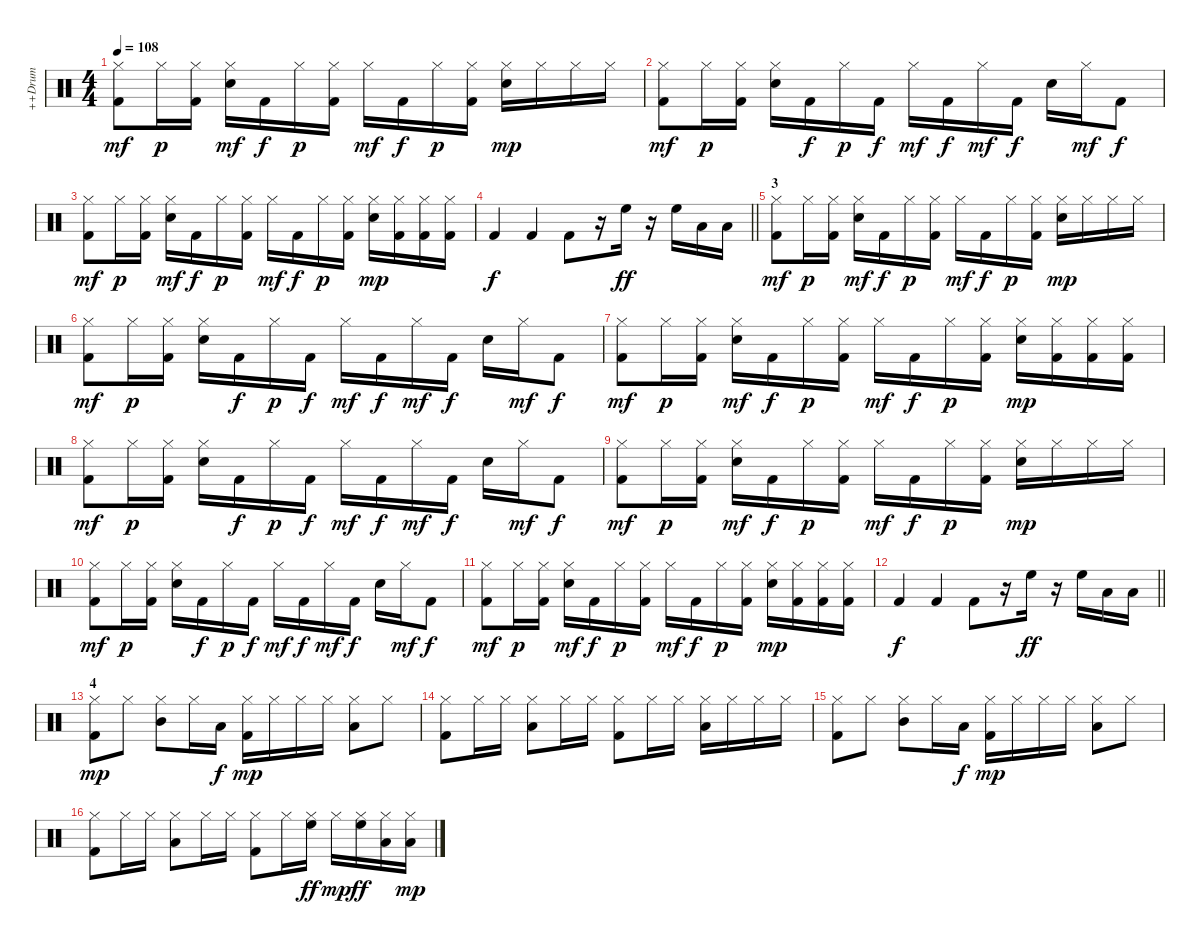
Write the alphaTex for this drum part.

\track ("++Drum" "++Drum") {instrument percussion}
\staff {score}
\articulation defaults
\ts (4 4)
\tempo 108
\clef neutral
\ks c
("Hi-Hat (closed)" "Kick (hit) 2").8{dy mf} "Hi-Hat (closed)".16{dy p} ("Hi-Hat (closed)" "Kick (hit) 2").16 ("Hi-Hat (closed)" "Electric Snare (hit)").16{dy mf} "Kick (hit) 2".16{dy f} "Hi-Hat (closed)".16{dy p} ("Hi-Hat (closed)" "Kick (hit) 2").16 "Hi-Hat (closed)".16{dy mf} "Kick (hit) 2".16{dy f} "Hi-Hat (closed)".16{dy p} ("Hi-Hat (closed)" "Kick (hit) 2").16 ("Hi-Hat (closed)" "Electric Snare (hit)").16{dy mp} "Hi-Hat (closed)".16 "Hi-Hat (closed)".16 "Hi-Hat (closed)".16 |
("Hi-Hat (closed)" "Kick (hit) 2").8{dy mf} "Hi-Hat (closed)".16{dy p} ("Hi-Hat (closed)" "Kick (hit) 2").16 ("Hi-Hat (closed)" "Electric Snare (hit)").16 "Kick (hit) 2".16{dy f} "Hi-Hat (closed)".16{dy p} "Kick (hit) 2".16{dy f} "Hi-Hat (closed)".16{dy mf} "Kick (hit) 2".16{dy f} "Hi-Hat (closed)".16{dy mf} "Kick (hit) 2".16{dy f} "Electric Snare (hit)".16 "Hi-Hat (closed)".16{dy mf} "Kick (hit) 2".8{dy f} |
("Hi-Hat (closed)" "Kick (hit) 2").8{dy mf} "Hi-Hat (closed)".16{dy p} ("Hi-Hat (closed)" "Kick (hit) 2").16 ("Hi-Hat (closed)" "Electric Snare (hit)").16{dy mf} "Kick (hit) 2".16{dy f} "Hi-Hat (closed)".16{dy p} ("Hi-Hat (closed)" "Kick (hit) 2").16 "Hi-Hat (closed)".16{dy mf} "Kick (hit) 2".16{dy f} "Hi-Hat (closed)".16{dy p} ("Hi-Hat (closed)" "Kick (hit) 2").16 ("Hi-Hat (closed)" "Electric Snare (hit)").16{dy mp} ("Hi-Hat (closed)" "Kick (hit) 2").16 ("Hi-Hat (closed)" "Kick (hit) 2").16 ("Hi-Hat (closed)" "Kick (hit) 2").16 |
\barLineRight lightlight "Kick (hit) 2".4{dy f} "Kick (hit) 2".4 "Kick (hit) 2".8
r.16 "High Floor Tom (hit)".16{dy ff} r.16 "High Floor Tom (hit)".16 "Low Tom (hit)".16 "Low Tom (hit)".16 |
\section ("" "3")
("Hi-Hat (closed)" "Kick (hit) 2").8{dy mf} "Hi-Hat (closed)".16{dy p} ("Hi-Hat (closed)" "Kick (hit) 2").16 ("Hi-Hat (closed)" "Electric Snare (hit)").16{dy mf} "Kick (hit) 2".16{dy f} "Hi-Hat (closed)".16{dy p} ("Hi-Hat (closed)" "Kick (hit) 2").16 "Hi-Hat (closed)".16{dy mf} "Kick (hit) 2".16{dy f} "Hi-Hat (closed)".16{dy p} ("Hi-Hat (closed)" "Kick (hit) 2").16 ("Hi-Hat (closed)" "Electric Snare (hit)").16{dy mp} "Hi-Hat (closed)".16 "Hi-Hat (closed)".16 "Hi-Hat (closed)".16 |
("Hi-Hat (closed)" "Kick (hit) 2").8{dy mf} "Hi-Hat (closed)".16{dy p} ("Hi-Hat (closed)" "Kick (hit) 2").16 ("Hi-Hat (closed)" "Electric Snare (hit)").16 "Kick (hit) 2".16{dy f} "Hi-Hat (closed)".16{dy p} "Kick (hit) 2".16{dy f} "Hi-Hat (closed)".16{dy mf} "Kick (hit) 2".16{dy f} "Hi-Hat (closed)".16{dy mf} "Kick (hit) 2".16{dy f} "Electric Snare (hit)".16 "Hi-Hat (closed)".16{dy mf} "Kick (hit) 2".8{dy f} |
("Hi-Hat (closed)" "Kick (hit) 2").8{dy mf} "Hi-Hat (closed)".16{dy p} ("Hi-Hat (closed)" "Kick (hit) 2").16 ("Hi-Hat (closed)" "Electric Snare (hit)").16{dy mf} "Kick (hit) 2".16{dy f} "Hi-Hat (closed)".16{dy p} ("Hi-Hat (closed)" "Kick (hit) 2").16 "Hi-Hat (closed)".16{dy mf} "Kick (hit) 2".16{dy f} "Hi-Hat (closed)".16{dy p} ("Hi-Hat (closed)" "Kick (hit) 2").16 ("Hi-Hat (closed)" "Electric Snare (hit)").16{dy mp} ("Hi-Hat (closed)" "Kick (hit) 2").16 ("Hi-Hat (closed)" "Kick (hit) 2").16 ("Hi-Hat (closed)" "Kick (hit) 2").16 |
("Hi-Hat (closed)" "Kick (hit) 2").8{dy mf} "Hi-Hat (closed)".16{dy p} ("Hi-Hat (closed)" "Kick (hit) 2").16 ("Hi-Hat (closed)" "Electric Snare (hit)").16 "Kick (hit) 2".16{dy f} "Hi-Hat (closed)".16{dy p} "Kick (hit) 2".16{dy f} "Hi-Hat (closed)".16{dy mf} "Kick (hit) 2".16{dy f} "Hi-Hat (closed)".16{dy mf} "Kick (hit) 2".16{dy f} "Electric Snare (hit)".16 "Hi-Hat (closed)".16{dy mf} "Kick (hit) 2".8{dy f} |
("Hi-Hat (closed)" "Kick (hit) 2").8{dy mf} "Hi-Hat (closed)".16{dy p} ("Hi-Hat (closed)" "Kick (hit) 2").16 ("Hi-Hat (closed)" "Electric Snare (hit)").16{dy mf} "Kick (hit) 2".16{dy f} "Hi-Hat (closed)".16{dy p} ("Hi-Hat (closed)" "Kick (hit) 2").16 "Hi-Hat (closed)".16{dy mf} "Kick (hit) 2".16{dy f} "Hi-Hat (closed)".16{dy p} ("Hi-Hat (closed)" "Kick (hit) 2").16 ("Hi-Hat (closed)" "Electric Snare (hit)").16{dy mp} "Hi-Hat (closed)".16 "Hi-Hat (closed)".16 "Hi-Hat (closed)".16 |
("Hi-Hat (closed)" "Kick (hit) 2").8{dy mf} "Hi-Hat (closed)".16{dy p} ("Hi-Hat (closed)" "Kick (hit) 2").16 ("Hi-Hat (closed)" "Electric Snare (hit)").16 "Kick (hit) 2".16{dy f} "Hi-Hat (closed)".16{dy p} "Kick (hit) 2".16{dy f} "Hi-Hat (closed)".16{dy mf} "Kick (hit) 2".16{dy f} "Hi-Hat (closed)".16{dy mf} "Kick (hit) 2".16{dy f} "Electric Snare (hit)".16 "Hi-Hat (closed)".16{dy mf} "Kick (hit) 2".8{dy f} |
("Hi-Hat (closed)" "Kick (hit) 2").8{dy mf} "Hi-Hat (closed)".16{dy p} ("Hi-Hat (closed)" "Kick (hit) 2").16 ("Hi-Hat (closed)" "Electric Snare (hit)").16{dy mf} "Kick (hit) 2".16{dy f} "Hi-Hat (closed)".16{dy p} ("Hi-Hat (closed)" "Kick (hit) 2").16 "Hi-Hat (closed)".16{dy mf} "Kick (hit) 2".16{dy f} "Hi-Hat (closed)".16{dy p} ("Hi-Hat (closed)" "Kick (hit) 2").16 ("Hi-Hat (closed)" "Electric Snare (hit)").16{dy mp} ("Hi-Hat (closed)" "Kick (hit) 2").16 ("Hi-Hat (closed)" "Kick (hit) 2").16 ("Hi-Hat (closed)" "Kick (hit) 2").16 |
\barLineRight lightlight "Kick (hit) 2".4{dy f} "Kick (hit) 2".4 "Kick (hit) 2".8
r.16 "High Floor Tom (hit)".16{dy ff} r.16 "High Floor Tom (hit)".16 "Low Tom (hit)".16 "Low Tom (hit)".16 |
\section ("" "4")
("Hi-Hat (closed)" "Kick (hit) 2").8{dy mp} "Hi-Hat (closed)".8 ("Hi-Hat (closed)" "Mid Tom (hit)").8 "Hi-Hat (closed)".16 "Low Tom (hit)".16{dy f} ("Hi-Hat (closed)" "Kick (hit) 2").16{dy mp} "Hi-Hat (closed)".16 "Hi-Hat (closed)".16 "Hi-Hat (closed)".16 ("Hi-Hat (closed)" "Low Tom (hit)").8 "Hi-Hat (closed)".8 |
("Hi-Hat (closed)" "Kick (hit) 2").8 "Hi-Hat (closed)".16 "Hi-Hat (closed)".16 ("Hi-Hat (closed)" "Low Tom (hit)").8 "Hi-Hat (closed)".16 "Hi-Hat (closed)".16 ("Hi-Hat (closed)" "Kick (hit) 2").8 "Hi-Hat (closed)".16 "Hi-Hat (closed)".16 ("Hi-Hat (closed)" "Low Tom (hit)").16 "Hi-Hat (closed)".16 "Hi-Hat (closed)".16 "Hi-Hat (closed)".16 |
("Hi-Hat (closed)" "Kick (hit) 2").8 "Hi-Hat (closed)".8 ("Hi-Hat (closed)" "Mid Tom (hit)").8 "Hi-Hat (closed)".16 "Low Tom (hit)".16{dy f} ("Hi-Hat (closed)" "Kick (hit) 2").16{dy mp} "Hi-Hat (closed)".16 "Hi-Hat (closed)".16 "Hi-Hat (closed)".16 ("Hi-Hat (closed)" "Low Tom (hit)").8 "Hi-Hat (closed)".8 |
("Hi-Hat (closed)" "Kick (hit) 2").8 "Hi-Hat (closed)".16 "Hi-Hat (closed)".16 ("Hi-Hat (closed)" "Low Tom (hit)").8 "Hi-Hat (closed)".16 "Hi-Hat (closed)".16 ("Hi-Hat (closed)" "Kick (hit) 2").8 "Hi-Hat (closed)".16 ("Hi-Hat (closed)" "High Floor Tom (hit)").16{dy ff} "Hi-Hat (closed)".16{dy mp} ("Hi-Hat (closed)" "High Floor Tom (hit)").16{dy ff} ("Hi-Hat (closed)" "Low Tom (hit)").16 ("Hi-Hat (closed)" "Low Tom (hit)").16{dy mp}
